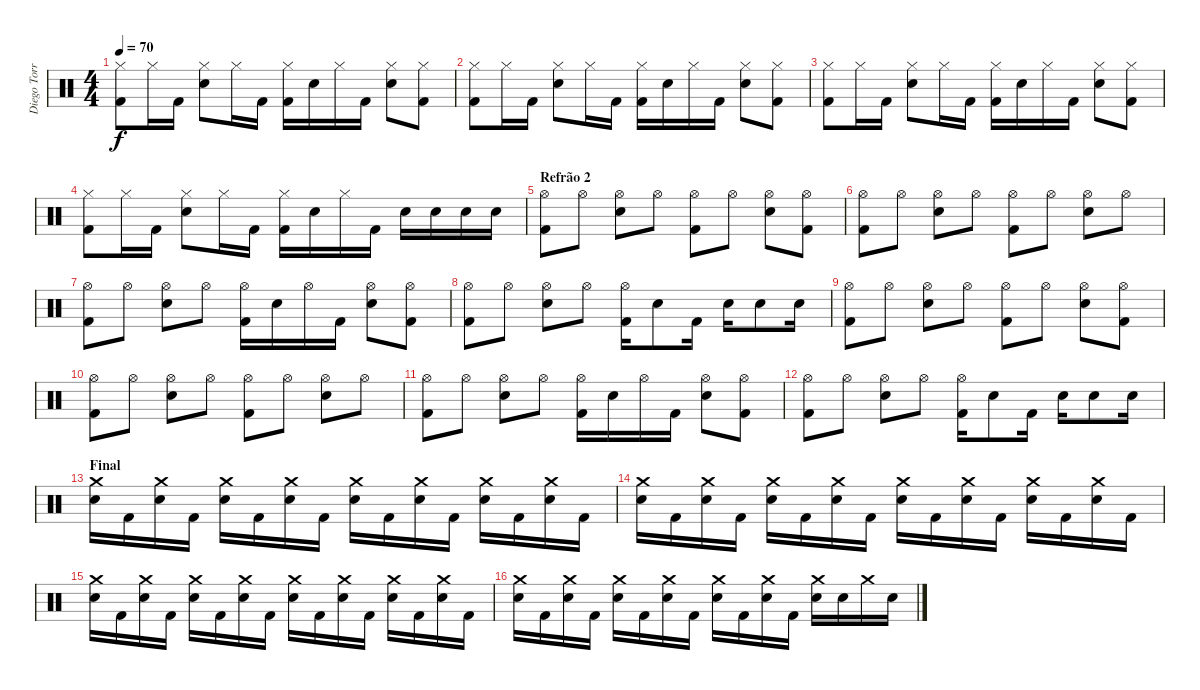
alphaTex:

\track ("Diego Torres [Bateria]" "Diego Torr") {instrument percussion}
\staff {score}
\articulation defaults
\ts (4 4)
\tempo 70
\clef neutral
\ks c
("Hi-Hat (closed)" "Kick (hit) 2").8{dy f} "Hi-Hat (closed)".16 "Kick (hit) 2".16 ("Hi-Hat (closed)" "Electric Snare (hit)").8 "Hi-Hat (closed)".16 "Kick (hit) 2".16 ("Hi-Hat (closed)" "Kick (hit) 2").16 "Electric Snare (hit)".16 "Hi-Hat (closed)".16 "Kick (hit) 2".16 ("Hi-Hat (closed)" "Electric Snare (hit)").8 ("Hi-Hat (closed)" "Kick (hit) 2").8 |
("Hi-Hat (closed)" "Kick (hit) 2").8 "Hi-Hat (closed)".16 "Kick (hit) 2".16 ("Hi-Hat (closed)" "Electric Snare (hit)").8 "Hi-Hat (closed)".16 "Kick (hit) 2".16 ("Hi-Hat (closed)" "Kick (hit) 2").16 "Electric Snare (hit)".16 "Hi-Hat (closed)".16 "Kick (hit) 2".16 ("Hi-Hat (closed)" "Electric Snare (hit)").8 ("Hi-Hat (closed)" "Kick (hit) 2").8 |
("Hi-Hat (closed)" "Kick (hit) 2").8 "Hi-Hat (closed)".16 "Kick (hit) 2".16 ("Hi-Hat (closed)" "Electric Snare (hit)").8 "Hi-Hat (closed)".16 "Kick (hit) 2".16 ("Hi-Hat (closed)" "Kick (hit) 2").16 "Electric Snare (hit)".16 "Hi-Hat (closed)".16 "Kick (hit) 2".16 ("Hi-Hat (closed)" "Electric Snare (hit)").8 ("Hi-Hat (closed)" "Kick (hit) 2").8 |
("Hi-Hat (closed)" "Kick (hit) 2").8 "Hi-Hat (closed)".16 "Kick (hit) 2".16 ("Hi-Hat (closed)" "Electric Snare (hit)").8 "Hi-Hat (closed)".16 "Kick (hit) 2".16 ("Hi-Hat (closed)" "Kick (hit) 2").16 "Electric Snare (hit)".16 "Hi-Hat (closed)".16 "Kick (hit) 2".16 "Electric Snare (hit)".16 "Electric Snare (hit)".16 "Electric Snare (hit)".16 "Electric Snare (hit)".16 |
\section ("" "Refrão 2")
("Hi-Hat (open)" "Kick (hit) 2").8 "Hi-Hat (open)".8 ("Hi-Hat (open)" "Electric Snare (hit)").8 "Hi-Hat (open)".8 ("Hi-Hat (open)" "Kick (hit) 2").8 "Hi-Hat (open)".8 ("Hi-Hat (open)" "Electric Snare (hit)").8 ("Hi-Hat (open)" "Kick (hit) 2").8 |
("Hi-Hat (open)" "Kick (hit) 2").8 "Hi-Hat (open)".8 ("Hi-Hat (open)" "Electric Snare (hit)").8 "Hi-Hat (open)".8 ("Hi-Hat (open)" "Kick (hit) 2").8 "Hi-Hat (open)".8 ("Hi-Hat (open)" "Electric Snare (hit)").8 "Hi-Hat (open)".8 |
("Hi-Hat (open)" "Kick (hit) 2").8 "Hi-Hat (open)".8 ("Hi-Hat (open)" "Electric Snare (hit)").8 "Hi-Hat (open)".8 ("Hi-Hat (open)" "Kick (hit) 2").16 "Electric Snare (hit)".16 "Hi-Hat (open)".16 "Kick (hit) 2".16 ("Hi-Hat (open)" "Electric Snare (hit)").8 ("Hi-Hat (open)" "Kick (hit) 2").8 |
("Hi-Hat (open)" "Kick (hit) 2").8 "Hi-Hat (open)".8 ("Hi-Hat (open)" "Electric Snare (hit)").8 "Hi-Hat (open)".8 ("Hi-Hat (open)" "Kick (hit) 2").16 "Electric Snare (hit)".8 "Kick (hit) 2".16 "Electric Snare (hit)".16 "Electric Snare (hit)".8 "Electric Snare (hit)".16 |
("Hi-Hat (open)" "Kick (hit) 2").8 "Hi-Hat (open)".8 ("Hi-Hat (open)" "Electric Snare (hit)").8 "Hi-Hat (open)".8 ("Hi-Hat (open)" "Kick (hit) 2").8 "Hi-Hat (open)".8 ("Hi-Hat (open)" "Electric Snare (hit)").8 ("Hi-Hat (open)" "Kick (hit) 2").8 |
("Hi-Hat (open)" "Kick (hit) 2").8 "Hi-Hat (open)".8 ("Hi-Hat (open)" "Electric Snare (hit)").8 "Hi-Hat (open)".8 ("Hi-Hat (open)" "Kick (hit) 2").8 "Hi-Hat (open)".8 ("Hi-Hat (open)" "Electric Snare (hit)").8 "Hi-Hat (open)".8 |
("Hi-Hat (open)" "Kick (hit) 2").8 "Hi-Hat (open)".8 ("Hi-Hat (open)" "Electric Snare (hit)").8 "Hi-Hat (open)".8 ("Hi-Hat (open)" "Kick (hit) 2").16 "Electric Snare (hit)".16 "Hi-Hat (open)".16 "Kick (hit) 2".16 ("Hi-Hat (open)" "Electric Snare (hit)").8 ("Hi-Hat (open)" "Kick (hit) 2").8 |
("Hi-Hat (open)" "Kick (hit) 2").8 "Hi-Hat (open)".8 ("Hi-Hat (open)" "Electric Snare (hit)").8 "Hi-Hat (open)".8 ("Hi-Hat (open)" "Kick (hit) 2").16 "Electric Snare (hit)".8 "Kick (hit) 2".16 "Electric Snare (hit)".16 "Electric Snare (hit)".8 "Electric Snare (hit)".16 |
\section ("" "Final")
("Crash medium (hit)" "Electric Snare (hit)").16 "Kick (hit) 2".16 ("Crash medium (hit)" "Electric Snare (hit)").16 "Kick (hit) 2".16 ("Crash medium (hit)" "Electric Snare (hit)").16 "Kick (hit) 2".16 ("Crash medium (hit)" "Electric Snare (hit)").16 "Kick (hit) 2".16 ("Crash medium (hit)" "Electric Snare (hit)").16 "Kick (hit) 2".16 ("Crash medium (hit)" "Electric Snare (hit)").16 "Kick (hit) 2".16 ("Crash medium (hit)" "Electric Snare (hit)").16 "Kick (hit) 2".16 ("Crash medium (hit)" "Electric Snare (hit)").16 "Kick (hit) 2".16 |
("Crash medium (hit)" "Electric Snare (hit)").16 "Kick (hit) 2".16 ("Crash medium (hit)" "Electric Snare (hit)").16 "Kick (hit) 2".16 ("Crash medium (hit)" "Electric Snare (hit)").16 "Kick (hit) 2".16 ("Crash medium (hit)" "Electric Snare (hit)").16 "Kick (hit) 2".16 ("Crash medium (hit)" "Electric Snare (hit)").16 "Kick (hit) 2".16 ("Crash medium (hit)" "Electric Snare (hit)").16 "Kick (hit) 2".16 ("Crash medium (hit)" "Electric Snare (hit)").16 "Kick (hit) 2".16 ("Crash medium (hit)" "Electric Snare (hit)").16 "Kick (hit) 2".16 |
("Crash medium (hit)" "Electric Snare (hit)").16 "Kick (hit) 2".16 ("Crash medium (hit)" "Electric Snare (hit)").16 "Kick (hit) 2".16 ("Crash medium (hit)" "Electric Snare (hit)").16 "Kick (hit) 2".16 ("Crash medium (hit)" "Electric Snare (hit)").16 "Kick (hit) 2".16 ("Crash medium (hit)" "Electric Snare (hit)").16 "Kick (hit) 2".16 ("Crash medium (hit)" "Electric Snare (hit)").16 "Kick (hit) 2".16 ("Crash medium (hit)" "Electric Snare (hit)").16 "Kick (hit) 2".16 ("Crash medium (hit)" "Electric Snare (hit)").16 "Kick (hit) 2".16 |
("Crash medium (hit)" "Electric Snare (hit)").16 "Kick (hit) 2".16 ("Crash medium (hit)" "Electric Snare (hit)").16 "Kick (hit) 2".16 ("Crash medium (hit)" "Electric Snare (hit)").16 "Kick (hit) 2".16 ("Crash medium (hit)" "Electric Snare (hit)").16 "Kick (hit) 2".16 ("Crash medium (hit)" "Electric Snare (hit)").16 "Kick (hit) 2".16 ("Crash medium (hit)" "Electric Snare (hit)").16 "Kick (hit) 2".16 ("Crash medium (hit)" "Electric Snare (hit)").16 "Electric Snare (hit)".16 "Crash medium (hit)".16 "Electric Snare (hit)".16
